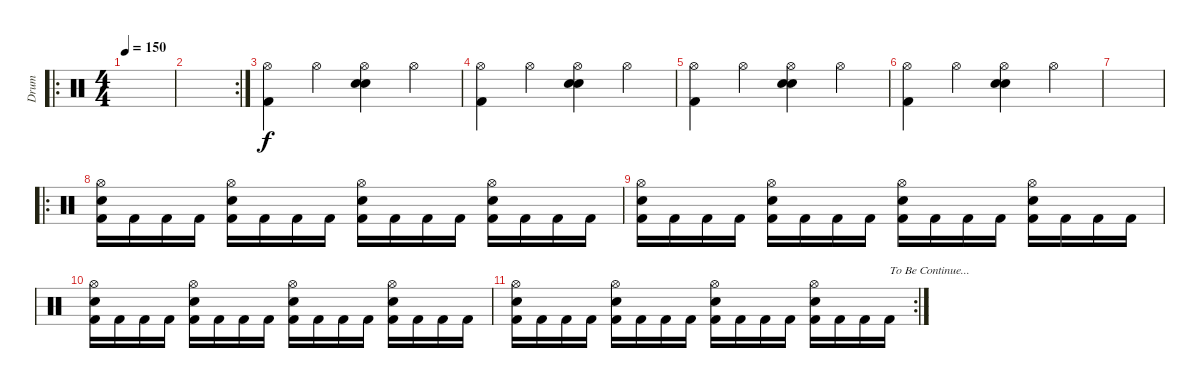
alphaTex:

\track ("Drum" "Drum") {instrument percussion}
\staff {score}
\articulation defaults
\ro
\ts (4 4)
\tempo 150
\clef neutral
\ks c
|
\rc 2
|
("Hi-Hat (open)" "Kick (hit) 2").4 "Hi-Hat (open)".4 ("Electric Snare (hit)" "Hi-Hat (open)" "Electric Snare (hit)").4 "Hi-Hat (open)".4 |
("Hi-Hat (open)" "Kick (hit) 2").4 "Hi-Hat (open)".4 ("Electric Snare (hit)" "Hi-Hat (open)" "Electric Snare (hit)").4 "Hi-Hat (open)".4 |
("Hi-Hat (open)" "Kick (hit) 2").4 "Hi-Hat (open)".4 ("Electric Snare (hit)" "Hi-Hat (open)" "Electric Snare (hit)").4 "Hi-Hat (open)".4 |
("Hi-Hat (open)" "Kick (hit) 2").4 "Hi-Hat (open)".4 ("Electric Snare (hit)" "Hi-Hat (open)" "Electric Snare (hit)").4 "Hi-Hat (open)".4 |
|
\ro
("Hi-Hat (open)" "Electric Snare (hit)" "Kick (hit) 2").16 "Kick (hit) 2".16 "Kick (hit) 2".16 "Kick (hit) 2".16 ("Hi-Hat (open)" "Electric Snare (hit)" "Kick (hit) 2").16 "Kick (hit) 2".16 "Kick (hit) 2".16 "Kick (hit) 2".16 ("Hi-Hat (open)" "Electric Snare (hit)" "Kick (hit) 2").16 "Kick (hit) 2".16 "Kick (hit) 2".16 "Kick (hit) 2".16 ("Hi-Hat (open)" "Electric Snare (hit)" "Kick (hit) 2").16 "Kick (hit) 2".16 "Kick (hit) 2".16 "Kick (hit) 2".16 |
("Hi-Hat (open)" "Electric Snare (hit)" "Kick (hit) 2").16 "Kick (hit) 2".16 "Kick (hit) 2".16 "Kick (hit) 2".16 ("Hi-Hat (open)" "Electric Snare (hit)" "Kick (hit) 2").16 "Kick (hit) 2".16 "Kick (hit) 2".16 "Kick (hit) 2".16 ("Hi-Hat (open)" "Electric Snare (hit)" "Kick (hit) 2").16 "Kick (hit) 2".16 "Kick (hit) 2".16 "Kick (hit) 2".16 ("Hi-Hat (open)" "Electric Snare (hit)" "Kick (hit) 2").16 "Kick (hit) 2".16 "Kick (hit) 2".16 "Kick (hit) 2".16 |
("Electric Snare (hit)" "Hi-Hat (open)" "Kick (hit) 2").16 "Kick (hit) 2".16 "Kick (hit) 2".16 "Kick (hit) 2".16 ("Hi-Hat (open)" "Electric Snare (hit)" "Kick (hit) 2").16 "Kick (hit) 2".16 "Kick (hit) 2".16 "Kick (hit) 2".16 ("Hi-Hat (open)" "Electric Snare (hit)" "Kick (hit) 2").16 "Kick (hit) 2".16 "Kick (hit) 2".16 "Kick (hit) 2".16 ("Hi-Hat (open)" "Electric Snare (hit)" "Kick (hit) 2").16 "Kick (hit) 2".16 "Kick (hit) 2".16 "Kick (hit) 2".16 |
\rc 2
("Hi-Hat (open)" "Electric Snare (hit)" "Kick (hit) 2").16 "Kick (hit) 2".16 "Kick (hit) 2".16 "Kick (hit) 2".16 ("Hi-Hat (open)" "Electric Snare (hit)" "Kick (hit) 2").16 "Kick (hit) 2".16 "Kick (hit) 2".16 "Kick (hit) 2".16 ("Hi-Hat (open)" "Electric Snare (hit)" "Kick (hit) 2").16 "Kick (hit) 2".16 "Kick (hit) 2".16 "Kick (hit) 2".16 ("Hi-Hat (open)" "Electric Snare (hit)" "Kick (hit) 2").16 "Kick (hit) 2".16 "Kick (hit) 2".16 "Kick (hit) 2".16{txt "To Be Continue..."}
